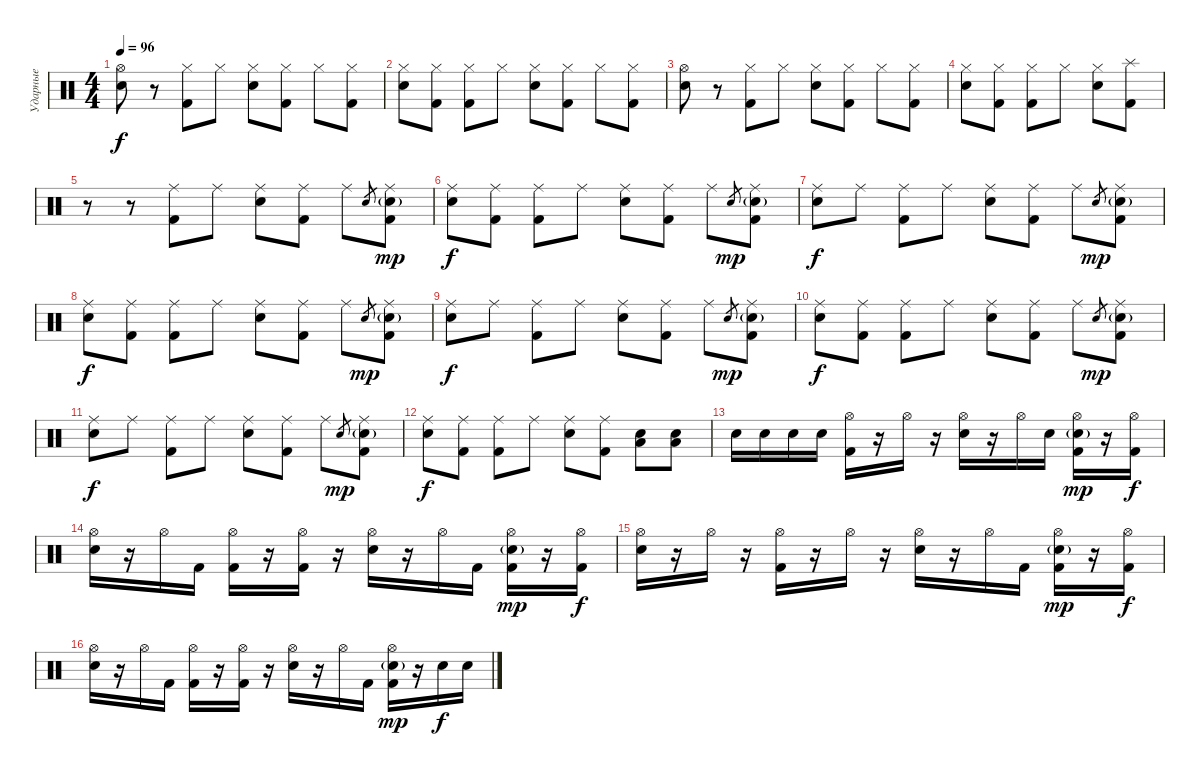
\track ("Ударные" "Ударные") {instrument percussion}
\staff {score}
\articulation defaults
\ts (4 4)
\tempo 96
\clef neutral
\ks c
("Hi-Hat (open)" "Electric Snare (hit)").8{dy f} r.8 ("Hi-Hat (closed)" "Kick (hit) 2").8 "Hi-Hat (closed)".8 ("Hi-Hat (closed)" "Snare (hit) 2").8 ("Hi-Hat (closed)" "Kick (hit) 2").8 "Hi-Hat (closed)".8 ("Hi-Hat (closed)" "Kick (hit) 2").8 |
("Hi-Hat (closed)" "Snare (hit) 2").8 ("Hi-Hat (closed)" "Kick (hit) 2").8 ("Hi-Hat (closed)" "Kick (hit) 2").8 "Hi-Hat (closed)".8 ("Hi-Hat (closed)" "Electric Snare (hit)").8 ("Hi-Hat (closed)" "Kick (hit) 2").8 "Hi-Hat (closed)".8 ("Hi-Hat (closed)" "Kick (hit) 2").8 |
("Hi-Hat (open)" "Electric Snare (hit)").8 r.8 ("Hi-Hat (closed)" "Kick (hit) 2").8 "Hi-Hat (closed)".8 ("Hi-Hat (closed)" "Snare (hit) 2").8 ("Hi-Hat (closed)" "Kick (hit) 2").8 "Hi-Hat (closed)".8 ("Hi-Hat (closed)" "Kick (hit) 2").8 |
("Hi-Hat (closed)" "Snare (hit) 2").8 ("Hi-Hat (closed)" "Kick (hit) 2").8 ("Hi-Hat (closed)" "Kick (hit) 2").8 "Hi-Hat (closed)".8 ("Hi-Hat (closed)" "Electric Snare (hit)").8 ("Splash (hit)" "Kick (hit) 2").8 |
r.8 r.8 ("Ride (middle)" "Kick (hit) 2").8 "Ride (middle)".8 ("Ride (middle)" "Snare (hit) 2").8 ("Ride (middle)" "Kick (hit) 2").8 "Ride (middle)".8 "Snare (hit) 2".8{gr} ("Ride (middle)" "Snare (hit) 2"{g} "Kick (hit) 2").8{dy mp} |
("Ride (middle)" "Snare (hit) 2").8{dy f} ("Ride (middle)" "Kick (hit) 2").8 ("Ride (middle)" "Kick (hit) 2").8 "Ride (middle)".8 ("Ride (middle)" "Electric Snare (hit)").8 ("Ride (middle)" "Kick (hit) 2").8 "Ride (middle)".8 "Electric Snare (hit)".8{gr dy mp} ("Ride (middle)" "Electric Snare (hit)"{g} "Kick (hit) 2").8 |
("Ride (middle)" "Electric Snare (hit)").8{dy f} "Ride (middle)".8 ("Ride (middle)" "Kick (hit) 2").8 "Ride (middle)".8 ("Ride (middle)" "Snare (hit) 2").8 ("Ride (middle)" "Kick (hit) 2").8 "Ride (middle)".8 "Snare (hit) 2".8{gr dy mp} ("Ride (middle)" "Snare (hit) 2"{g} "Kick (hit) 2").8 |
("Ride (middle)" "Snare (hit) 2").8{dy f} ("Ride (middle)" "Kick (hit) 2").8 ("Ride (middle)" "Kick (hit) 2").8 "Ride (middle)".8 ("Ride (middle)" "Electric Snare (hit)").8 ("Ride (middle)" "Kick (hit) 2").8 "Ride (middle)".8 "Electric Snare (hit)".8{gr dy mp} ("Ride (middle)" "Electric Snare (hit)"{g} "Kick (hit) 2").8 |
("Ride (middle)" "Electric Snare (hit)").8{dy f} "Ride (middle)".8 ("Ride (middle)" "Kick (hit) 2").8 "Ride (middle)".8 ("Ride (middle)" "Snare (hit) 2").8 ("Ride (middle)" "Kick (hit) 2").8 "Ride (middle)".8 "Snare (hit) 2".8{gr dy mp} ("Ride (middle)" "Snare (hit) 2"{g} "Kick (hit) 2").8 |
("Ride (middle)" "Snare (hit) 2").8{dy f} ("Ride (middle)" "Kick (hit) 2").8 ("Ride (middle)" "Kick (hit) 2").8 "Ride (middle)".8 ("Ride (middle)" "Electric Snare (hit)").8 ("Ride (middle)" "Kick (hit) 2").8 "Ride (middle)".8 "Electric Snare (hit)".8{gr dy mp} ("Ride (middle)" "Electric Snare (hit)"{g} "Kick (hit) 2").8 |
("Ride (middle)" "Electric Snare (hit)").8{dy f} "Ride (middle)".8 ("Ride (middle)" "Kick (hit) 2").8 "Ride (middle)".8 ("Ride (middle)" "Snare (hit) 2").8 ("Ride (middle)" "Kick (hit) 2").8 "Ride (middle)".8 "Snare (hit) 2".8{gr dy mp} ("Ride (middle)" "Snare (hit) 2"{g} "Kick (hit) 2").8 |
("Ride (middle)" "Snare (hit) 2").8{dy f} ("Ride (middle)" "Kick (hit) 2").8 ("Ride (middle)" "Kick (hit) 2").8 "Ride (middle)".8 ("Ride (middle)" "Electric Snare (hit)").8 ("Ride (middle)" "Kick (hit) 2").8 ("Low Tom (hit)" "Electric Snare (hit)").8 ("Low Tom (hit)" "Electric Snare (hit)").8 |
"Snare (hit) 2".16 "Snare (hit) 2".16 "Snare (hit) 2".16 "Snare (hit) 2".16 ("Hi-Hat (open)" "Kick (hit) 2").16 r.16 "Hi-Hat (open)".16 r.16 ("Hi-Hat (open)" "Electric Snare (hit)").16 r.16 "Hi-Hat (open)".16 "Snare (hit) 2".16 ("Hi-Hat (open)" "Snare (hit) 2"{g} "Kick (hit) 2").16{dy mp} r.16 ("Hi-Hat (open)" "Kick (hit) 2").16{dy f} |
("Hi-Hat (open)" "Electric Snare (hit)").16 r.16 "Hi-Hat (open)".16 "Kick (hit) 2".16 ("Hi-Hat (open)" "Kick (hit) 2").16 r.16 ("Hi-Hat (open)" "Kick (hit) 2").16 r.16 ("Hi-Hat (open)" "Electric Snare (hit)").16 r.16 "Hi-Hat (open)".16 "Kick (hit) 2".16 ("Hi-Hat (open)" "Snare (hit) 2"{g} "Kick (hit) 2").16{dy mp} r.16 ("Hi-Hat (open)" "Kick (hit) 2").16{dy f} |
("Hi-Hat (open)" "Electric Snare (hit)").16 r.16 "Hi-Hat (open)".16 r.16 ("Hi-Hat (open)" "Kick (hit) 2").16 r.16 "Hi-Hat (open)".16 r.16 ("Hi-Hat (open)" "Electric Snare (hit)").16 r.16 "Hi-Hat (open)".16 "Kick (hit) 2".16 ("Hi-Hat (open)" "Snare (hit) 2"{g} "Kick (hit) 2").16{dy mp} r.16 ("Hi-Hat (open)" "Kick (hit) 2").16{dy f} |
("Hi-Hat (open)" "Electric Snare (hit)").16 r.16 "Hi-Hat (open)".16 "Kick (hit) 2".16 ("Hi-Hat (open)" "Kick (hit) 2").16 r.16 ("Hi-Hat (open)" "Kick (hit) 2").16 r.16 ("Hi-Hat (open)" "Electric Snare (hit)").16 r.16 "Hi-Hat (open)".16 "Kick (hit) 2".16 ("Hi-Hat (open)" "Snare (hit) 2"{g} "Kick (hit) 2").16{dy mp} r.16 "Electric Snare (hit)".16{dy f} "Electric Snare (hit)".16
